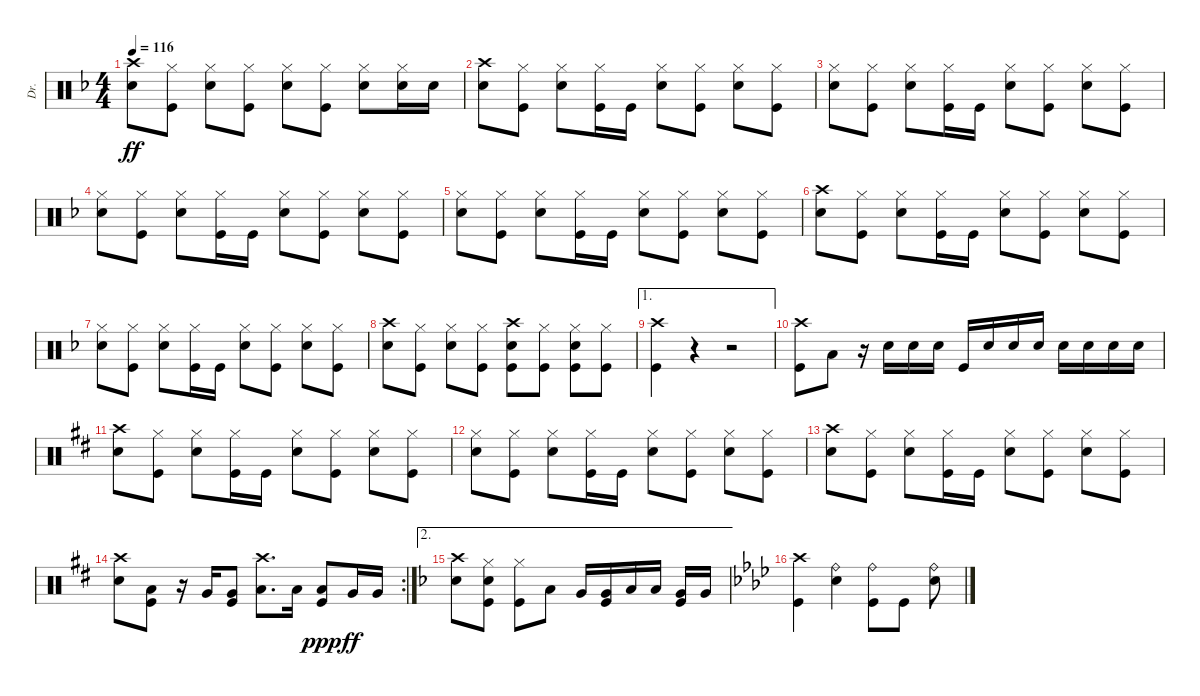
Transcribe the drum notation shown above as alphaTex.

\track ("Dr." "Dr.") {instrument percussion}
\staff {score}
\articulation defaults
\ts (4 4)
\tempo 116
\clef neutral
\ks f
("Snare (hit) 2" "Crash high (hit)").8{dy ff} ("Kick (hit)" "Hi-Hat (closed)").8 ("Snare (hit) 2" "Hi-Hat (closed)").8 ("Kick (hit)" "Hi-Hat (closed)").8 ("Snare (hit) 2" "Hi-Hat (closed)").8 ("Kick (hit)" "Hi-Hat (closed)").8 ("Snare (hit) 2" "Hi-Hat (closed)").8 ("Snare (hit) 2" "Hi-Hat (closed)").16 "Snare (hit) 2".16 |
("Snare (hit) 2" "Crash high (hit)").8 ("Kick (hit)" "Hi-Hat (closed)").8 ("Snare (hit) 2" "Hi-Hat (closed)").8 ("Kick (hit)" "Hi-Hat (closed)").16 "Kick (hit)".16 ("Snare (hit) 2" "Hi-Hat (closed)").8 ("Kick (hit)" "Hi-Hat (closed)").8 ("Snare (hit) 2" "Hi-Hat (closed)").8 ("Kick (hit)" "Hi-Hat (closed)").8 |
("Snare (hit) 2" "Hi-Hat (closed)").8 ("Kick (hit)" "Hi-Hat (closed)").8 ("Snare (hit) 2" "Hi-Hat (closed)").8 ("Kick (hit)" "Hi-Hat (closed)").16 "Kick (hit)".16 ("Snare (hit) 2" "Hi-Hat (closed)").8 ("Kick (hit)" "Hi-Hat (closed)").8 ("Snare (hit) 2" "Hi-Hat (closed)").8 ("Kick (hit)" "Hi-Hat (closed)").8 |
("Snare (hit) 2" "Hi-Hat (closed)").8 ("Kick (hit)" "Hi-Hat (closed)").8 ("Snare (hit) 2" "Hi-Hat (closed)").8 ("Kick (hit)" "Hi-Hat (closed)").16 "Kick (hit)".16 ("Snare (hit) 2" "Hi-Hat (closed)").8 ("Kick (hit)" "Hi-Hat (closed)").8 ("Snare (hit) 2" "Hi-Hat (closed)").8 ("Kick (hit)" "Hi-Hat (closed)").8 |
("Snare (hit) 2" "Hi-Hat (closed)").8 ("Kick (hit)" "Hi-Hat (closed)").8 ("Snare (hit) 2" "Hi-Hat (closed)").8 ("Kick (hit)" "Hi-Hat (closed)").16 "Kick (hit)".16 ("Snare (hit) 2" "Hi-Hat (closed)").8 ("Kick (hit)" "Hi-Hat (closed)").8 ("Snare (hit) 2" "Hi-Hat (closed)").8 ("Kick (hit)" "Hi-Hat (closed)").8 |
("Snare (hit) 2" "Crash high (hit)").8 ("Kick (hit)" "Hi-Hat (closed)").8 ("Snare (hit) 2" "Hi-Hat (closed)").8 ("Kick (hit)" "Hi-Hat (closed)").16 "Kick (hit)".16 ("Snare (hit) 2" "Hi-Hat (closed)").8 ("Kick (hit)" "Hi-Hat (closed)").8 ("Snare (hit) 2" "Hi-Hat (closed)").8 ("Kick (hit)" "Hi-Hat (closed)").8 |
("Snare (hit) 2" "Hi-Hat (closed)").8 ("Kick (hit)" "Hi-Hat (closed)").8 ("Snare (hit) 2" "Hi-Hat (closed)").8 ("Kick (hit)" "Hi-Hat (closed)").16 "Kick (hit)".16 ("Snare (hit) 2" "Hi-Hat (closed)").8 ("Kick (hit)" "Hi-Hat (closed)").8 ("Snare (hit) 2" "Hi-Hat (closed)").8 ("Kick (hit)" "Hi-Hat (closed)").8 |
("Snare (hit) 2" "Crash high (hit)").8 ("Kick (hit)" "Hi-Hat (closed)").8 ("Snare (hit) 2" "Hi-Hat (closed)").8 ("Kick (hit)" "Hi-Hat (closed)").8 ("Snare (hit) 2" "Crash high (hit)" "Kick (hit)").8 ("Kick (hit)" "Hi-Hat (closed)").8 ("Snare (hit) 2" "Hi-Hat (closed)" "Kick (hit)").8 ("Kick (hit)" "Hi-Hat (closed)").8 |
\ae 1
("Crash high (hit)" "Kick (hit)").4 r.4 r.2 |
("Kick (hit)" "Crash high (hit)").8 "Low Tom (hit)".8 r.16 "Snare (hit) 2".16 "Snare (hit) 2".16 "Snare (hit) 2".16 "Kick (hit)".16 "Snare (hit) 2".16 "Snare (hit) 2".16 "Snare (hit) 2".16 "Snare (hit) 2".16 "Snare (hit) 2".16 "Snare (hit) 2".16 "Snare (hit) 2".16 |
\ks d
("Snare (hit) 2" "Crash high (hit)").8 ("Kick (hit)" "Hi-Hat (closed)").8 ("Snare (hit) 2" "Hi-Hat (closed)").8 ("Kick (hit)" "Hi-Hat (closed)").16 "Kick (hit)".16 ("Snare (hit) 2" "Hi-Hat (closed)").8 ("Kick (hit)" "Hi-Hat (closed)").8 ("Snare (hit) 2" "Hi-Hat (closed)").8 ("Kick (hit)" "Hi-Hat (closed)").8 |
("Snare (hit) 2" "Hi-Hat (closed)").8 ("Kick (hit)" "Hi-Hat (closed)").8 ("Snare (hit) 2" "Hi-Hat (closed)").8 ("Kick (hit)" "Hi-Hat (closed)").16 "Kick (hit)".16 ("Snare (hit) 2" "Hi-Hat (closed)").8 ("Kick (hit)" "Hi-Hat (closed)").8 ("Snare (hit) 2" "Hi-Hat (closed)").8 ("Kick (hit)" "Hi-Hat (closed)").8 |
("Snare (hit) 2" "Crash high (hit)").8 ("Kick (hit)" "Hi-Hat (closed)").8 ("Snare (hit) 2" "Hi-Hat (closed)").8 ("Kick (hit)" "Hi-Hat (closed)").16 "Kick (hit)".16 ("Snare (hit) 2" "Hi-Hat (closed)").8 ("Kick (hit)" "Hi-Hat (closed)").8 ("Snare (hit) 2" "Hi-Hat (closed)").8 ("Kick (hit)" "Hi-Hat (closed)").8 |
\rc 2
("Snare (hit) 2" "Crash high (hit)").8 ("Kick (hit)" "Low Tom (hit)").8 r.16 "Very Low Tom (hit)".16 ("Kick (hit)" "Very Low Tom (hit)").8 ("Crash high (hit)" "Low Tom (hit)").8{d} "Low Tom (hit)".16 ("Low Tom (hit)" "Kick (hit)").8{dy ppp} "Very Low Tom (hit)".16{dy ff} "Very Low Tom (hit)".16 |
\ae 2
\ks f
("Snare (hit) 2" "Crash high (hit)").8 ("Kick (hit)" "Hi-Hat (closed)" "Snare (hit) 2").8 ("Hi-Hat (closed)" "Kick (hit)").8 "Low Tom (hit)".8 "Very Low Tom (hit)".16 ("Kick (hit)" "Very Low Tom (hit)").16 "Low Tom (hit)".16 "Low Tom (hit)".16 ("Very Low Tom (hit)" "Kick (hit)").16 "Very Low Tom (hit)".16 |
\ks ab
("Kick (hit)" "Crash high (hit)").4 ("Snare (hit) 2" "Ride (bell)").4 ("Kick (hit)" "Ride (bell)").8 "Kick (hit)".8 ("Snare (hit) 2" "Ride (bell)").8
